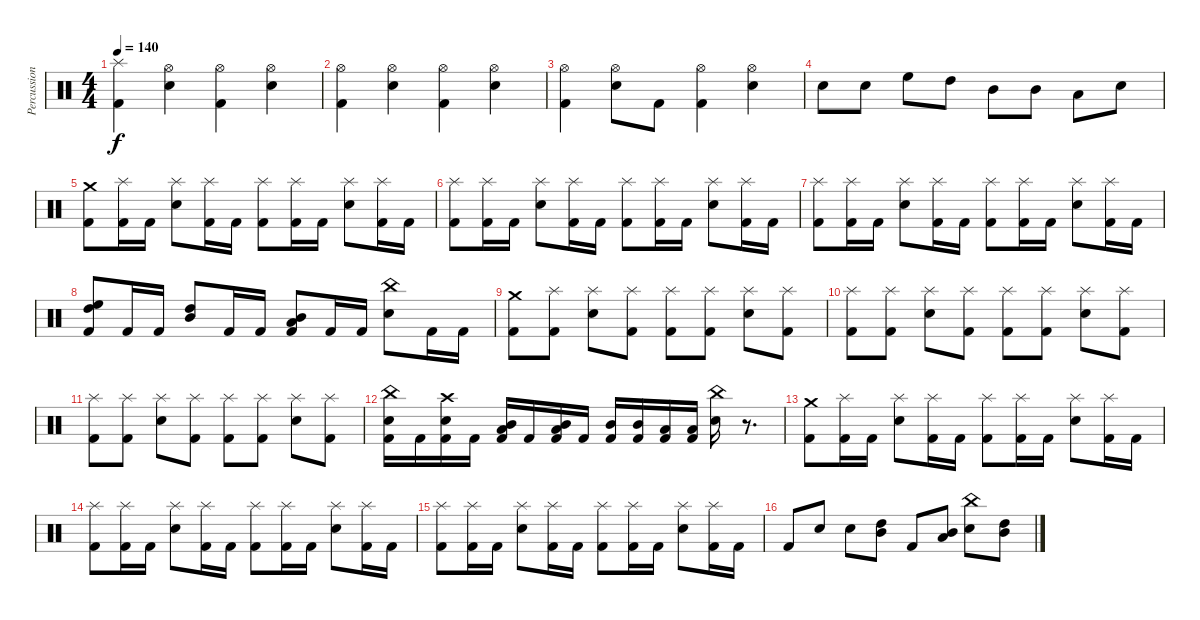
\track ("Percussion" "Percussion") {instrument percussion}
\staff {score}
\articulation defaults
\ts (4 4)
\tempo 140
\clef neutral
\ks c
("Splash (hit)" "Kick (hit) 2").4{dy f} ("Hi-Hat (open)" "Electric Snare (hit)").4 ("Hi-Hat (open)" "Kick (hit) 2").4 ("Hi-Hat (open)" "Electric Snare (hit)").4 |
("Hi-Hat (open)" "Kick (hit) 2").4 ("Hi-Hat (open)" "Electric Snare (hit)").4 ("Hi-Hat (open)" "Kick (hit) 2").4 ("Hi-Hat (open)" "Electric Snare (hit)").4 |
("Hi-Hat (open)" "Kick (hit) 2").4 ("Hi-Hat (open)" "Electric Snare (hit)").8 "Kick (hit) 2".8 ("Hi-Hat (open)" "Kick (hit) 2").4 ("Hi-Hat (open)" "Electric Snare (hit)").4 |
"Electric Snare (hit)".8 "Electric Snare (hit)".8 "High Floor Tom (hit)".8 "High Tom (hit)".8 "Mid Tom (hit)".8 "Mid Tom (hit)".8 "Low Tom (hit)".8 "Snare (hit) 2".8 |
("Crash medium (hit)" "Kick (hit) 2").8 ("Splash (hit)" "Kick (hit) 2").16 "Kick (hit) 2".16 ("Splash (hit)" "Electric Snare (hit)").8 ("Splash (hit)" "Kick (hit) 2").16 "Kick (hit) 2".16 ("Splash (hit)" "Kick (hit) 2").8 ("Splash (hit)" "Kick (hit) 2").16 "Kick (hit) 2".16 ("Splash (hit)" "Electric Snare (hit)").8 ("Splash (hit)" "Kick (hit) 2").16 "Kick (hit) 2".16 |
("Splash (hit)" "Kick (hit) 2").8 ("Splash (hit)" "Kick (hit) 2").16 "Kick (hit) 2".16 ("Splash (hit)" "Electric Snare (hit)").8 ("Splash (hit)" "Kick (hit) 2").16 "Kick (hit) 2".16 ("Splash (hit)" "Kick (hit) 2").8 ("Splash (hit)" "Kick (hit) 2").16 "Kick (hit) 2".16 ("Splash (hit)" "Electric Snare (hit)").8 ("Splash (hit)" "Kick (hit) 2").16 "Kick (hit) 2".16 |
("Splash (hit)" "Kick (hit) 2").8 ("Splash (hit)" "Kick (hit) 2").16 "Kick (hit) 2".16 ("Splash (hit)" "Electric Snare (hit)").8 ("Splash (hit)" "Kick (hit) 2").16 "Kick (hit) 2".16 ("Splash (hit)" "Kick (hit) 2").8 ("Splash (hit)" "Kick (hit) 2").16 "Kick (hit) 2".16 ("Splash (hit)" "Electric Snare (hit)").8 ("Splash (hit)" "Kick (hit) 2").16 "Kick (hit) 2".16 |
("High Tom (hit)" "High Floor Tom (hit)" "Kick (hit) 2").8 "Kick (hit) 2".16 "Kick (hit) 2".16 ("Mid Tom (hit)" "High Tom (hit)").8 "Kick (hit) 2".16 "Kick (hit) 2".16 ("Low Tom (hit)" "Mid Tom (hit)" "Kick (hit) 2").8 "Kick (hit) 2".16 "Kick (hit) 2".16 ("China (hit)" "Electric Snare (hit)").8 "Kick (hit) 2".16 "Kick (hit) 2".16 |
("Crash medium (hit)" "Kick (hit) 2").8 ("Splash (hit)" "Kick (hit) 2").8 ("Splash (hit)" "Electric Snare (hit)").8 ("Splash (hit)" "Kick (hit) 2").8 ("Splash (hit)" "Kick (hit) 2").8 ("Splash (hit)" "Kick (hit) 2").8 ("Splash (hit)" "Electric Snare (hit)").8 ("Splash (hit)" "Kick (hit) 2").8 |
("Splash (hit)" "Kick (hit) 2").8 ("Splash (hit)" "Kick (hit) 2").8 ("Splash (hit)" "Electric Snare (hit)").8 ("Splash (hit)" "Kick (hit) 2").8 ("Splash (hit)" "Kick (hit) 2").8 ("Splash (hit)" "Kick (hit) 2").8 ("Splash (hit)" "Electric Snare (hit)").8 ("Splash (hit)" "Kick (hit) 2").8 |
("Splash (hit)" "Kick (hit) 2").8 ("Splash (hit)" "Kick (hit) 2").8 ("Splash (hit)" "Electric Snare (hit)").8 ("Splash (hit)" "Kick (hit) 2").8 ("Splash (hit)" "Kick (hit) 2").8 ("Splash (hit)" "Kick (hit) 2").8 ("Splash (hit)" "Electric Snare (hit)").8 ("Splash (hit)" "Kick (hit) 2").8 |
("China (hit)" "Electric Snare (hit)" "Kick (hit) 2").16 "Kick (hit) 2".16 ("Crash high (hit)" "Electric Snare (hit)" "Kick (hit) 2").16 "Kick (hit) 2".16 ("Low Tom (hit)" "Mid Tom (hit)" "Kick (hit) 2").16 "Kick (hit) 2".16 ("Low Tom (hit)" "Mid Tom (hit)" "Kick (hit) 2").16 "Kick (hit) 2".16 ("Mid Tom (hit)" "Kick (hit) 2").16 ("Mid Tom (hit)" "Kick (hit) 2").16 ("Low Tom (hit)" "Kick (hit) 2").16 ("Low Tom (hit)" "Kick (hit) 2").16 ("China (hit)" "Electric Snare (hit)").16 r.8{d} |
("Crash medium (hit)" "Kick (hit) 2").8 ("Splash (hit)" "Kick (hit) 2").16 "Kick (hit) 2".16 ("Splash (hit)" "Electric Snare (hit)").8 ("Splash (hit)" "Kick (hit) 2").16 "Kick (hit) 2".16 ("Splash (hit)" "Kick (hit) 2").8 ("Splash (hit)" "Kick (hit) 2").16 "Kick (hit) 2".16 ("Splash (hit)" "Electric Snare (hit)").8 ("Splash (hit)" "Kick (hit) 2").16 "Kick (hit) 2".16 |
("Splash (hit)" "Kick (hit) 2").8 ("Splash (hit)" "Kick (hit) 2").16 "Kick (hit) 2".16 ("Splash (hit)" "Electric Snare (hit)").8 ("Splash (hit)" "Kick (hit) 2").16 "Kick (hit) 2".16 ("Splash (hit)" "Kick (hit) 2").8 ("Splash (hit)" "Kick (hit) 2").16 "Kick (hit) 2".16 ("Splash (hit)" "Electric Snare (hit)").8 ("Splash (hit)" "Kick (hit) 2").16 "Kick (hit) 2".16 |
("Splash (hit)" "Kick (hit) 2").8 ("Splash (hit)" "Kick (hit) 2").16 "Kick (hit) 2".16 ("Splash (hit)" "Electric Snare (hit)").8 ("Splash (hit)" "Kick (hit) 2").16 "Kick (hit) 2".16 ("Splash (hit)" "Kick (hit) 2").8 ("Splash (hit)" "Kick (hit) 2").16 "Kick (hit) 2".16 ("Splash (hit)" "Electric Snare (hit)").8 ("Splash (hit)" "Kick (hit) 2").16 "Kick (hit) 2".16 |
"Kick (hit) 2".8 "Electric Snare (hit)".8 "Electric Snare (hit)".8 ("High Tom (hit)" "Mid Tom (hit)").8 "Kick (hit) 2".8 ("Low Tom (hit)" "Mid Tom (hit)").8 ("China (hit)" "Electric Snare (hit)").8 ("High Tom (hit)" "Mid Tom (hit)").8
